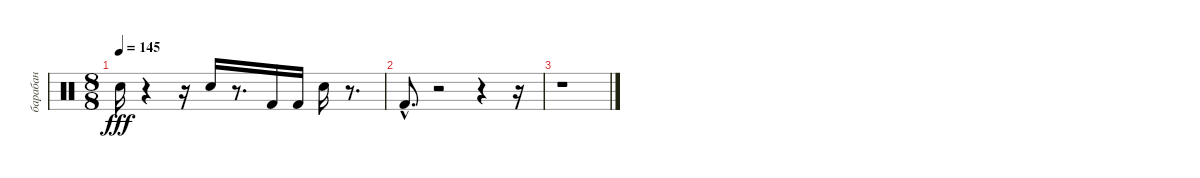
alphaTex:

\track ("барабан" "барабан") {instrument percussion}
\staff {score}
\articulation defaults
\ts (8 8)
\tempo 145
\clef neutral
\ks c "Snare (hit) 2".16{dy fff}
r.4 r.16 "Snare (hit) 2".16 r.8{d} "Kick (hit) 2".16 "Kick (hit) 2".16 "Snare (hit) 2".16 r.8{d} |
"Kick (hit) 2"{hac}.8{d} r.2 r.4 r.16 |
r.1
